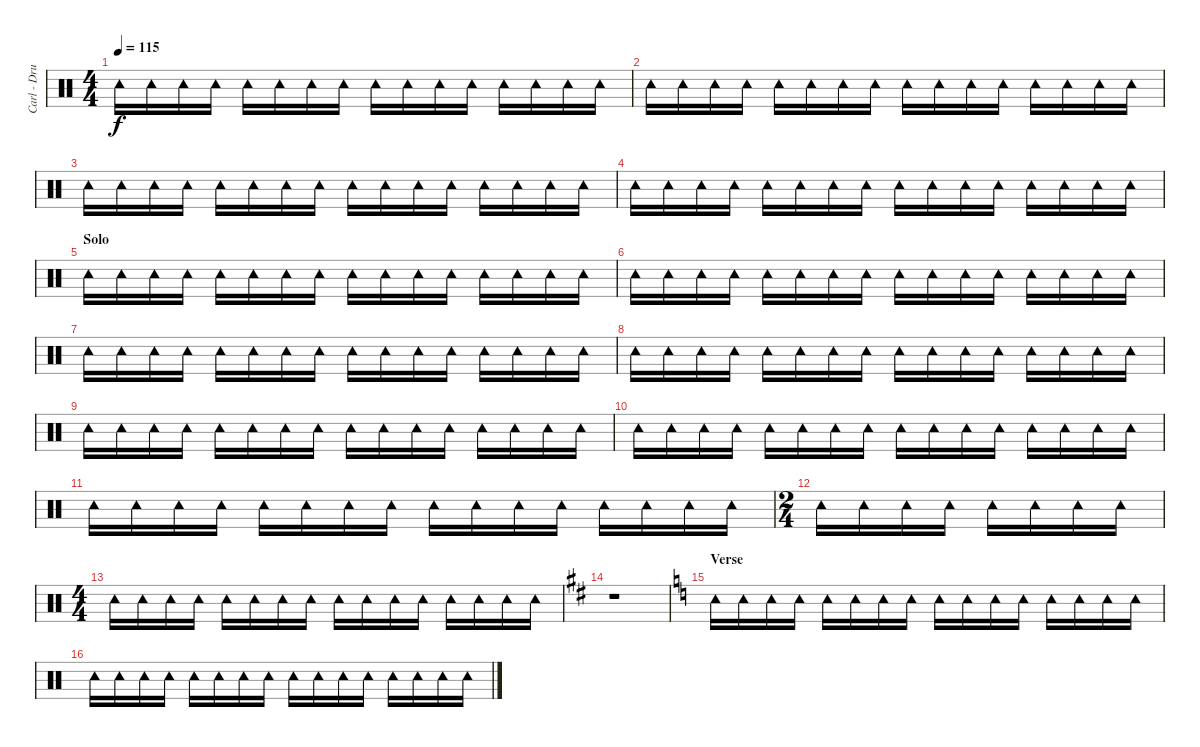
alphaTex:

\track ("Carl - Drums" "Carl - Dru") {instrument percussion}
\staff {score}
\articulation defaults
\ts (4 4)
\tempo 115
\clef neutral
\ks c "Tambourine (hit)".16{dy f} "Tambourine (hit)".16 "Tambourine (hit)".16 "Tambourine (hit)".16 "Tambourine (hit)".16 "Tambourine (hit)".16 "Tambourine (hit)".16 "Tambourine (hit)".16 "Tambourine (hit)".16 "Tambourine (hit)".16 "Tambourine (hit)".16 "Tambourine (hit)".16 "Tambourine (hit)".16 "Tambourine (hit)".16 "Tambourine (hit)".16 "Tambourine (hit)".16
|
"Tambourine (hit)".16 "Tambourine (hit)".16 "Tambourine (hit)".16 "Tambourine (hit)".16 "Tambourine (hit)".16 "Tambourine (hit)".16 "Tambourine (hit)".16 "Tambourine (hit)".16 "Tambourine (hit)".16 "Tambourine (hit)".16 "Tambourine (hit)".16 "Tambourine (hit)".16 "Tambourine (hit)".16 "Tambourine (hit)".16 "Tambourine (hit)".16 "Tambourine (hit)".16 |
"Tambourine (hit)".16 "Tambourine (hit)".16 "Tambourine (hit)".16 "Tambourine (hit)".16 "Tambourine (hit)".16 "Tambourine (hit)".16 "Tambourine (hit)".16 "Tambourine (hit)".16 "Tambourine (hit)".16 "Tambourine (hit)".16 "Tambourine (hit)".16 "Tambourine (hit)".16 "Tambourine (hit)".16 "Tambourine (hit)".16 "Tambourine (hit)".16 "Tambourine (hit)".16 |
"Tambourine (hit)".16 "Tambourine (hit)".16 "Tambourine (hit)".16 "Tambourine (hit)".16 "Tambourine (hit)".16 "Tambourine (hit)".16 "Tambourine (hit)".16 "Tambourine (hit)".16 "Tambourine (hit)".16 "Tambourine (hit)".16 "Tambourine (hit)".16 "Tambourine (hit)".16 "Tambourine (hit)".16 "Tambourine (hit)".16 "Tambourine (hit)".16 "Tambourine (hit)".16 |
\section ("" "Solo")
"Tambourine (hit)".16 "Tambourine (hit)".16 "Tambourine (hit)".16 "Tambourine (hit)".16 "Tambourine (hit)".16 "Tambourine (hit)".16 "Tambourine (hit)".16 "Tambourine (hit)".16 "Tambourine (hit)".16 "Tambourine (hit)".16 "Tambourine (hit)".16 "Tambourine (hit)".16 "Tambourine (hit)".16 "Tambourine (hit)".16 "Tambourine (hit)".16 "Tambourine (hit)".16 |
"Tambourine (hit)".16 "Tambourine (hit)".16 "Tambourine (hit)".16 "Tambourine (hit)".16 "Tambourine (hit)".16 "Tambourine (hit)".16 "Tambourine (hit)".16 "Tambourine (hit)".16 "Tambourine (hit)".16 "Tambourine (hit)".16 "Tambourine (hit)".16 "Tambourine (hit)".16 "Tambourine (hit)".16 "Tambourine (hit)".16 "Tambourine (hit)".16 "Tambourine (hit)".16 |
"Tambourine (hit)".16 "Tambourine (hit)".16 "Tambourine (hit)".16 "Tambourine (hit)".16 "Tambourine (hit)".16 "Tambourine (hit)".16 "Tambourine (hit)".16 "Tambourine (hit)".16 "Tambourine (hit)".16 "Tambourine (hit)".16 "Tambourine (hit)".16 "Tambourine (hit)".16 "Tambourine (hit)".16 "Tambourine (hit)".16 "Tambourine (hit)".16 "Tambourine (hit)".16 |
"Tambourine (hit)".16 "Tambourine (hit)".16 "Tambourine (hit)".16 "Tambourine (hit)".16 "Tambourine (hit)".16 "Tambourine (hit)".16 "Tambourine (hit)".16 "Tambourine (hit)".16 "Tambourine (hit)".16 "Tambourine (hit)".16 "Tambourine (hit)".16 "Tambourine (hit)".16 "Tambourine (hit)".16 "Tambourine (hit)".16 "Tambourine (hit)".16 "Tambourine (hit)".16 |
"Tambourine (hit)".16 "Tambourine (hit)".16 "Tambourine (hit)".16 "Tambourine (hit)".16 "Tambourine (hit)".16 "Tambourine (hit)".16 "Tambourine (hit)".16 "Tambourine (hit)".16 "Tambourine (hit)".16 "Tambourine (hit)".16 "Tambourine (hit)".16 "Tambourine (hit)".16 "Tambourine (hit)".16 "Tambourine (hit)".16 "Tambourine (hit)".16 "Tambourine (hit)".16 |
"Tambourine (hit)".16 "Tambourine (hit)".16 "Tambourine (hit)".16 "Tambourine (hit)".16 "Tambourine (hit)".16 "Tambourine (hit)".16 "Tambourine (hit)".16 "Tambourine (hit)".16 "Tambourine (hit)".16 "Tambourine (hit)".16 "Tambourine (hit)".16 "Tambourine (hit)".16 "Tambourine (hit)".16 "Tambourine (hit)".16 "Tambourine (hit)".16 "Tambourine (hit)".16 |
"Tambourine (hit)".16 "Tambourine (hit)".16 "Tambourine (hit)".16 "Tambourine (hit)".16 "Tambourine (hit)".16 "Tambourine (hit)".16 "Tambourine (hit)".16 "Tambourine (hit)".16 "Tambourine (hit)".16 "Tambourine (hit)".16 "Tambourine (hit)".16 "Tambourine (hit)".16 "Tambourine (hit)".16 "Tambourine (hit)".16 "Tambourine (hit)".16 "Tambourine (hit)".16 |
\ts (2 4)
"Tambourine (hit)".16 "Tambourine (hit)".16 "Tambourine (hit)".16 "Tambourine (hit)".16 "Tambourine (hit)".16 "Tambourine (hit)".16 "Tambourine (hit)".16 "Tambourine (hit)".16 |
\ts (4 4)
"Tambourine (hit)".16 "Tambourine (hit)".16 "Tambourine (hit)".16 "Tambourine (hit)".16 "Tambourine (hit)".16 "Tambourine (hit)".16 "Tambourine (hit)".16 "Tambourine (hit)".16 "Tambourine (hit)".16 "Tambourine (hit)".16 "Tambourine (hit)".16 "Tambourine (hit)".16 "Tambourine (hit)".16 "Tambourine (hit)".16 "Tambourine (hit)".16 "Tambourine (hit)".16 |
\ks d
r.1 |
\section ("" "Verse")
\ks c "Tambourine (hit)".16 "Tambourine (hit)".16 "Tambourine (hit)".16 "Tambourine (hit)".16 "Tambourine (hit)".16 "Tambourine (hit)".16 "Tambourine (hit)".16 "Tambourine (hit)".16 "Tambourine (hit)".16 "Tambourine (hit)".16 "Tambourine (hit)".16 "Tambourine (hit)".16 "Tambourine (hit)".16 "Tambourine (hit)".16 "Tambourine (hit)".16 "Tambourine (hit)".16
|
"Tambourine (hit)".16 "Tambourine (hit)".16 "Tambourine (hit)".16 "Tambourine (hit)".16 "Tambourine (hit)".16 "Tambourine (hit)".16 "Tambourine (hit)".16 "Tambourine (hit)".16 "Tambourine (hit)".16 "Tambourine (hit)".16 "Tambourine (hit)".16 "Tambourine (hit)".16 "Tambourine (hit)".16 "Tambourine (hit)".16 "Tambourine (hit)".16 "Tambourine (hit)".16
